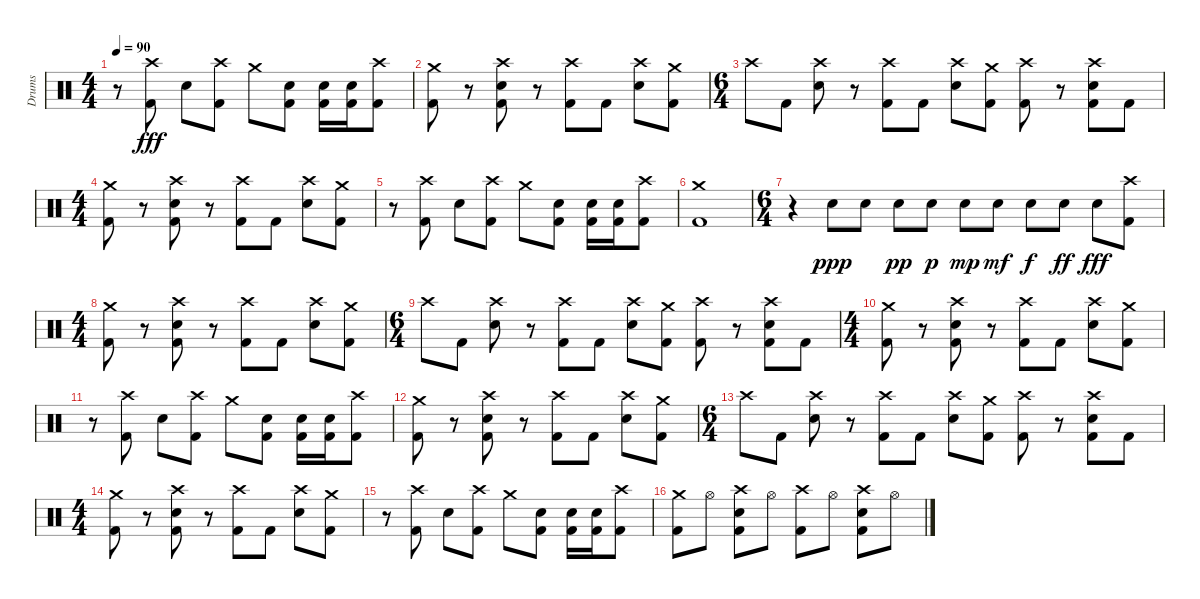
\track ("Drums" "Drums") {instrument percussion}
\staff {score}
\articulation defaults
\ts (4 4)
\tempo 90
\clef neutral
\ks c
r.8{dy fff} ("Crash high (hit)" "Kick (hit) 2").8 "Electric Snare (hit)".8 ("Crash high (hit)" "Kick (hit) 2").8 "Crash medium (hit)".8 ("Electric Snare (hit)" "Kick (hit) 2").8 ("Electric Snare (hit)" "Kick (hit) 2").16 ("Electric Snare (hit)" "Kick (hit) 2").16 ("Crash high (hit)" "Kick (hit) 2").8 |
("Crash medium (hit)" "Kick (hit) 2").8 r.8 ("Crash high (hit)" "Electric Snare (hit)" "Kick (hit) 2").8 r.8 ("Crash high (hit)" "Kick (hit) 2").8 "Kick (hit) 2".8 ("Crash high (hit)" "Electric Snare (hit)").8 ("Crash medium (hit)" "Kick (hit) 2").8 |
\ts (6 4)
"Crash high (hit)".8 "Kick (hit) 2".8 ("Crash high (hit)" "Electric Snare (hit)").8 r.8 ("Crash high (hit)" "Kick (hit) 2").8 "Kick (hit) 2".8 ("Crash high (hit)" "Electric Snare (hit)").8 ("Crash medium (hit)" "Kick (hit) 2").8 ("Crash high (hit)" "Kick (hit) 2").8 r.8 ("Crash high (hit)" "Electric Snare (hit)" "Kick (hit) 2").8 "Kick (hit) 2".8 |
\ts (4 4)
("Crash medium (hit)" "Kick (hit) 2").8 r.8 ("Crash high (hit)" "Electric Snare (hit)" "Kick (hit) 2").8 r.8 ("Crash high (hit)" "Kick (hit) 2").8 "Kick (hit) 2".8 ("Crash high (hit)" "Electric Snare (hit)").8 ("Crash medium (hit)" "Kick (hit) 2").8 |
r.8 ("Crash high (hit)" "Kick (hit) 2").8 "Electric Snare (hit)".8 ("Crash high (hit)" "Kick (hit) 2").8 "Crash medium (hit)".8 ("Electric Snare (hit)" "Kick (hit) 2").8 ("Electric Snare (hit)" "Kick (hit) 2").16 ("Electric Snare (hit)" "Kick (hit) 2").16 ("Crash high (hit)" "Kick (hit) 2").8 |
("Crash medium (hit)" "Kick (hit) 2").1 |
\ts (6 4)
r.4 "Electric Snare (hit)".8{dy ppp} "Electric Snare (hit)".8 "Electric Snare (hit)".8{dy pp} "Electric Snare (hit)".8{dy p} "Electric Snare (hit)".8{dy mp} "Electric Snare (hit)".8{dy mf} "Electric Snare (hit)".8{dy f} "Electric Snare (hit)".8{dy ff} "Electric Snare (hit)".8{dy fff} ("Crash high (hit)" "Kick (hit) 2").8 |
\ts (4 4)
("Crash medium (hit)" "Kick (hit) 2").8 r.8 ("Crash high (hit)" "Electric Snare (hit)" "Kick (hit) 2").8 r.8 ("Crash high (hit)" "Kick (hit) 2").8 "Kick (hit) 2".8 ("Crash high (hit)" "Electric Snare (hit)").8 ("Crash medium (hit)" "Kick (hit) 2").8 |
\ts (6 4)
"Crash high (hit)".8 "Kick (hit) 2".8 ("Crash high (hit)" "Electric Snare (hit)").8 r.8 ("Crash high (hit)" "Kick (hit) 2").8 "Kick (hit) 2".8 ("Crash high (hit)" "Electric Snare (hit)").8 ("Crash medium (hit)" "Kick (hit) 2").8 ("Crash high (hit)" "Kick (hit) 2").8 r.8 ("Crash high (hit)" "Electric Snare (hit)" "Kick (hit) 2").8 "Kick (hit) 2".8 |
\ts (4 4)
("Crash medium (hit)" "Kick (hit) 2").8 r.8 ("Crash high (hit)" "Electric Snare (hit)" "Kick (hit) 2").8 r.8 ("Crash high (hit)" "Kick (hit) 2").8 "Kick (hit) 2".8 ("Crash high (hit)" "Electric Snare (hit)").8 ("Crash medium (hit)" "Kick (hit) 2").8 |
r.8 ("Crash high (hit)" "Kick (hit) 2").8 "Electric Snare (hit)".8 ("Crash high (hit)" "Kick (hit) 2").8 "Crash medium (hit)".8 ("Electric Snare (hit)" "Kick (hit) 2").8 ("Electric Snare (hit)" "Kick (hit) 2").16 ("Electric Snare (hit)" "Kick (hit) 2").16 ("Crash high (hit)" "Kick (hit) 2").8 |
("Crash medium (hit)" "Kick (hit) 2").8 r.8 ("Crash high (hit)" "Electric Snare (hit)" "Kick (hit) 2").8 r.8 ("Crash high (hit)" "Kick (hit) 2").8 "Kick (hit) 2".8 ("Crash high (hit)" "Electric Snare (hit)").8 ("Crash medium (hit)" "Kick (hit) 2").8 |
\ts (6 4)
"Crash high (hit)".8 "Kick (hit) 2".8 ("Crash high (hit)" "Electric Snare (hit)").8 r.8 ("Crash high (hit)" "Kick (hit) 2").8 "Kick (hit) 2".8 ("Crash high (hit)" "Electric Snare (hit)").8 ("Crash medium (hit)" "Kick (hit) 2").8 ("Crash high (hit)" "Kick (hit) 2").8 r.8 ("Crash high (hit)" "Electric Snare (hit)" "Kick (hit) 2").8 "Kick (hit) 2".8 |
\ts (4 4)
("Crash medium (hit)" "Kick (hit) 2").8 r.8 ("Crash high (hit)" "Electric Snare (hit)" "Kick (hit) 2").8 r.8 ("Crash high (hit)" "Kick (hit) 2").8 "Kick (hit) 2".8 ("Crash high (hit)" "Electric Snare (hit)").8 ("Crash medium (hit)" "Kick (hit) 2").8 |
r.8 ("Crash high (hit)" "Kick (hit) 2").8 "Electric Snare (hit)".8 ("Crash high (hit)" "Kick (hit) 2").8 "Crash medium (hit)".8 ("Electric Snare (hit)" "Kick (hit) 2").8 ("Electric Snare (hit)" "Kick (hit) 2").16 ("Electric Snare (hit)" "Kick (hit) 2").16 ("Crash high (hit)" "Kick (hit) 2").8 |
("Crash medium (hit)" "Kick (hit) 2").8 "Hi-Hat (open)".8 ("Crash high (hit)" "Snare (hit) 2" "Kick (hit) 2").8 "Hi-Hat (open)".8 ("Crash high (hit)" "Kick (hit) 2").8 "Hi-Hat (open)".8 ("Crash high (hit)" "Snare (hit) 2" "Kick (hit) 2").8 "Hi-Hat (open)".8
